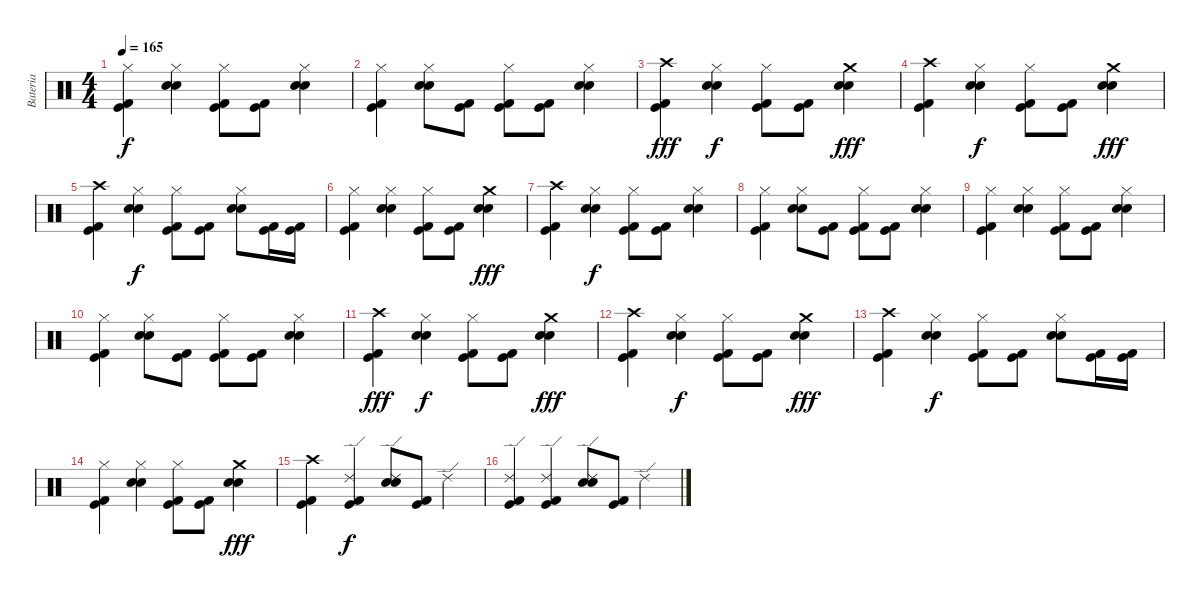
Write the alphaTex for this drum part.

\track ("Bateria" "Bateria") {instrument percussion}
\staff {score}
\articulation defaults
\ts (4 4)
\tempo 165
\clef neutral
\ks c
("Hi-Hat (closed)" "Kick (hit) 2" "Kick (hit)").4{dy f} ("Hi-Hat (closed)" "Electric Snare (hit)" "Snare (hit) 2").4 ("Hi-Hat (closed)" "Kick (hit) 2" "Kick (hit)").8 ("Kick (hit) 2" "Kick (hit)").8 ("Hi-Hat (closed)" "Electric Snare (hit)" "Snare (hit) 2").4 |
("Hi-Hat (closed)" "Kick (hit) 2" "Kick (hit)").4 ("Hi-Hat (closed)" "Electric Snare (hit)" "Snare (hit) 2").8 ("Kick (hit) 2" "Kick (hit)").8 ("Hi-Hat (closed)" "Kick (hit) 2" "Kick (hit)").8 ("Kick (hit) 2" "Kick (hit)").8 ("Hi-Hat (closed)" "Electric Snare (hit)" "Snare (hit) 2").4 |
("Crash high (hit)" "Kick (hit) 2" "Kick (hit)").4{dy fff} ("Hi-Hat (closed)" "Electric Snare (hit)" "Snare (hit) 2").4{dy f} ("Hi-Hat (closed)" "Kick (hit) 2" "Kick (hit)").8 ("Kick (hit) 2" "Kick (hit)").8 ("Crash medium (hit)" "Electric Snare (hit)" "Snare (hit) 2").4{dy fff} |
("Crash high (hit)" "Kick (hit) 2" "Kick (hit)").4 ("Hi-Hat (closed)" "Electric Snare (hit)" "Snare (hit) 2").4{dy f} ("Hi-Hat (closed)" "Kick (hit) 2" "Kick (hit)").8 ("Kick (hit) 2" "Kick (hit)").8 ("Crash medium (hit)" "Electric Snare (hit)" "Snare (hit) 2").4{dy fff} |
("Crash high (hit)" "Kick (hit) 2" "Kick (hit)").4 ("Hi-Hat (closed)" "Electric Snare (hit)" "Snare (hit) 2").4{dy f} ("Hi-Hat (closed)" "Kick (hit) 2" "Kick (hit)").8 ("Kick (hit) 2" "Kick (hit)").8 ("Hi-Hat (closed)" "Electric Snare (hit)" "Snare (hit) 2").8 ("Kick (hit) 2" "Kick (hit)").16 ("Kick (hit) 2" "Kick (hit)").16 |
("Hi-Hat (closed)" "Kick (hit) 2" "Kick (hit)").4 ("Hi-Hat (closed)" "Electric Snare (hit)" "Snare (hit) 2").4 ("Hi-Hat (closed)" "Kick (hit) 2" "Kick (hit)").8 ("Kick (hit) 2" "Kick (hit)").8 ("Crash medium (hit)" "Electric Snare (hit)" "Snare (hit) 2").4{dy fff} |
("Crash high (hit)" "Kick (hit) 2" "Kick (hit)").4 ("Hi-Hat (closed)" "Electric Snare (hit)" "Snare (hit) 2").4{dy f} ("Hi-Hat (closed)" "Kick (hit) 2" "Kick (hit)").8 ("Kick (hit) 2" "Kick (hit)").8 ("Hi-Hat (closed)" "Electric Snare (hit)" "Snare (hit) 2").4 |
("Hi-Hat (closed)" "Kick (hit) 2" "Kick (hit)").4 ("Hi-Hat (closed)" "Electric Snare (hit)" "Snare (hit) 2").8 ("Kick (hit) 2" "Kick (hit)").8 ("Hi-Hat (closed)" "Kick (hit) 2" "Kick (hit)").8 ("Kick (hit) 2" "Kick (hit)").8 ("Hi-Hat (closed)" "Electric Snare (hit)" "Snare (hit) 2").4 |
("Hi-Hat (closed)" "Kick (hit) 2" "Kick (hit)").4 ("Hi-Hat (closed)" "Electric Snare (hit)" "Snare (hit) 2").4 ("Hi-Hat (closed)" "Kick (hit) 2" "Kick (hit)").8 ("Kick (hit) 2" "Kick (hit)").8 ("Hi-Hat (closed)" "Electric Snare (hit)" "Snare (hit) 2").4 |
("Hi-Hat (closed)" "Kick (hit) 2" "Kick (hit)").4 ("Hi-Hat (closed)" "Electric Snare (hit)" "Snare (hit) 2").8 ("Kick (hit) 2" "Kick (hit)").8 ("Hi-Hat (closed)" "Kick (hit) 2" "Kick (hit)").8 ("Kick (hit) 2" "Kick (hit)").8 ("Hi-Hat (closed)" "Electric Snare (hit)" "Snare (hit) 2").4 |
("Crash high (hit)" "Kick (hit) 2" "Kick (hit)").4{dy fff} ("Hi-Hat (closed)" "Electric Snare (hit)" "Snare (hit) 2").4{dy f} ("Hi-Hat (closed)" "Kick (hit) 2" "Kick (hit)").8 ("Kick (hit) 2" "Kick (hit)").8 ("Crash medium (hit)" "Electric Snare (hit)" "Snare (hit) 2").4{dy fff} |
("Crash high (hit)" "Kick (hit) 2" "Kick (hit)").4 ("Hi-Hat (closed)" "Electric Snare (hit)" "Snare (hit) 2").4{dy f} ("Hi-Hat (closed)" "Kick (hit) 2" "Kick (hit)").8 ("Kick (hit) 2" "Kick (hit)").8 ("Crash medium (hit)" "Electric Snare (hit)" "Snare (hit) 2").4{dy fff} |
("Crash high (hit)" "Kick (hit) 2" "Kick (hit)").4 ("Hi-Hat (closed)" "Electric Snare (hit)" "Snare (hit) 2").4{dy f} ("Hi-Hat (closed)" "Kick (hit) 2" "Kick (hit)").8 ("Kick (hit) 2" "Kick (hit)").8 ("Hi-Hat (closed)" "Electric Snare (hit)" "Snare (hit) 2").8 ("Kick (hit) 2" "Kick (hit)").16 ("Kick (hit) 2" "Kick (hit)").16 |
("Hi-Hat (closed)" "Kick (hit) 2" "Kick (hit)").4 ("Hi-Hat (closed)" "Electric Snare (hit)" "Snare (hit) 2").4 ("Hi-Hat (closed)" "Kick (hit) 2" "Kick (hit)").8 ("Kick (hit) 2" "Kick (hit)").8 ("Crash medium (hit)" "Electric Snare (hit)" "Snare (hit) 2").4{dy fff} |
("Crash high (hit)" "Kick (hit) 2" "Kick (hit)").4 ("Ride (edge) 2" "Kick (hit) 2" "Kick (hit)").4{dy f} ("Ride (edge) 2" "Electric Snare (hit)" "Snare (hit) 2").8 ("Kick (hit) 2" "Kick (hit)").8 "Ride (edge) 2".4 |
("Ride (edge) 2" "Kick (hit) 2" "Kick (hit)").4 ("Ride (edge) 2" "Kick (hit) 2" "Kick (hit)").4 ("Ride (edge) 2" "Electric Snare (hit)" "Snare (hit) 2").8 ("Kick (hit) 2" "Kick (hit)").8 "Ride (edge) 2".4
